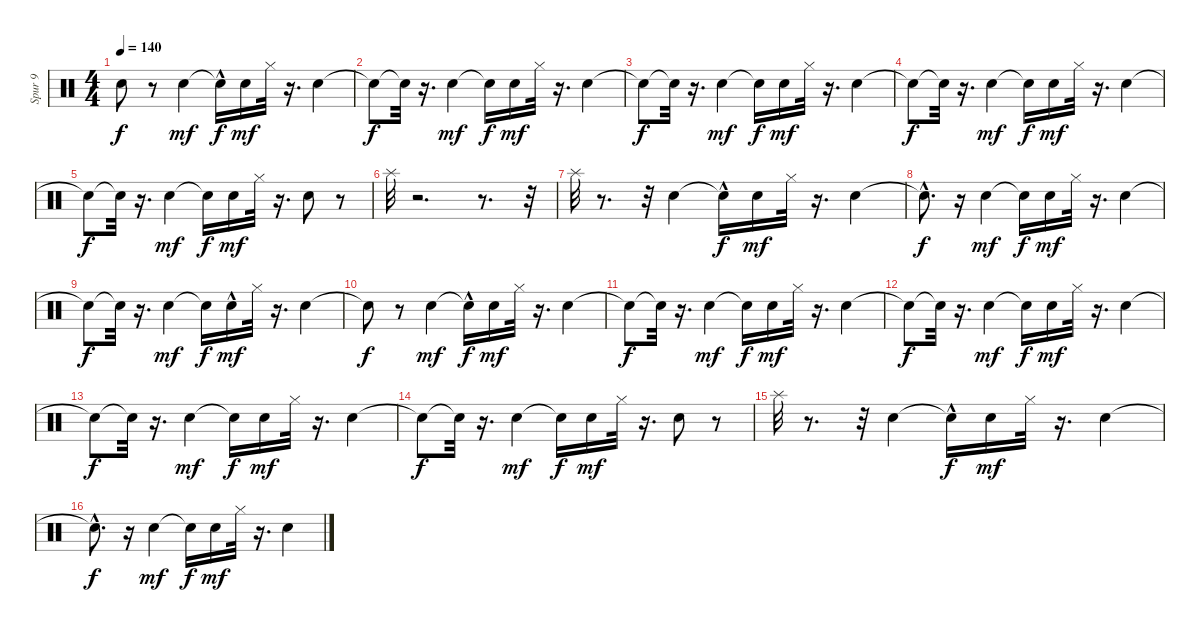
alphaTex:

\track ("Spur 9" "Spur 9") {instrument percussion}
\staff {score}
\articulation defaults
\ts (4 4)
\tempo 140
\clef neutral
\ks c "Snare (hit)"{t}.8{dy f}
r.8 "Electric Snare (hit)".4{dy mf} "Snare (hit)"{hac t}.16{dy f} "Snare (hit)".16{dy mf} "Hi-Hat (closed)".32 r.16{d} "Electric Snare (hit)".4 |
"Snare (hit)"{t}.8{dy f} "Snare (hit)"{t}.32 r.16{d} "Electric Snare (hit)".4{dy mf} "Snare (hit)"{t}.16{dy f} "Snare (hit)".16{dy mf} "Hi-Hat (closed)".32 r.16{d} "Electric Snare (hit)".4 |
"Snare (hit)"{t}.8{dy f} "Snare (hit)"{t}.32 r.16{d} "Electric Snare (hit)".4{dy mf} "Snare (hit)"{t}.16{dy f} "Snare (hit)".16{dy mf} "Hi-Hat (closed)".32 r.16{d} "Electric Snare (hit)".4 |
"Snare (hit)"{t}.8{dy f} "Snare (hit)"{t}.32 r.16{d} "Electric Snare (hit)".4{dy mf} "Snare (hit)"{t}.16{dy f} "Snare (hit)".16{dy mf} "Hi-Hat (closed)".32 r.16{d} "Electric Snare (hit)".4 |
"Snare (hit)"{t}.8{dy f} "Snare (hit)"{t}.32 r.16{d} "Electric Snare (hit)".4{dy mf} "Snare (hit)"{t}.16{dy f} "Snare (hit)".16{dy mf} "Hi-Hat (closed)".32 r.16{d} "Electric Snare (hit)".8 r.8 |
"Splash (hit)".32 r.2{d} r.8{d} r.32 |
"Splash (hit)".32 r.8{d} r.32 "Electric Snare (hit)".4 "Snare (hit)"{hac t}.16{dy f} "Snare (hit)".16{dy mf} "Hi-Hat (closed)".32 r.16{d} "Electric Snare (hit)".4 |
"Snare (hit)"{hac t}.8{d dy f} r.16 "Electric Snare (hit)".4{dy mf} "Snare (hit)"{t}.16{dy f} "Snare (hit)".16{dy mf} "Hi-Hat (closed)".32 r.16{d} "Electric Snare (hit)".4 |
"Snare (hit)"{t}.8{dy f} "Snare (hit)"{t}.32 r.16{d} "Electric Snare (hit)".4{dy mf} "Snare (hit)"{t}.16{dy f} "Snare (hit)"{hac}.16{dy mf} "Hi-Hat (closed)".32 r.16{d} "Electric Snare (hit)".4 |
"Snare (hit)"{t}.8{dy f} r.8 "Electric Snare (hit)".4{dy mf} "Snare (hit)"{hac t}.16{dy f} "Snare (hit)".16{dy mf} "Hi-Hat (closed)".32 r.16{d} "Electric Snare (hit)".4 |
"Snare (hit)"{t}.8{dy f} "Snare (hit)"{t}.32 r.16{d} "Electric Snare (hit)".4{dy mf} "Snare (hit)"{t}.16{dy f} "Snare (hit)".16{dy mf} "Hi-Hat (closed)".32 r.16{d} "Electric Snare (hit)".4 |
"Snare (hit)"{t}.8{dy f} "Snare (hit)"{t}.32 r.16{d} "Electric Snare (hit)".4{dy mf} "Snare (hit)"{t}.16{dy f} "Snare (hit)".16{dy mf} "Hi-Hat (closed)".32 r.16{d} "Electric Snare (hit)".4 |
"Snare (hit)"{t}.8{dy f} "Snare (hit)"{t}.32 r.16{d} "Electric Snare (hit)".4{dy mf} "Snare (hit)"{t}.16{dy f} "Snare (hit)".16{dy mf} "Hi-Hat (closed)".32 r.16{d} "Electric Snare (hit)".4 |
"Snare (hit)"{t}.8{dy f} "Snare (hit)"{t}.32 r.16{d} "Electric Snare (hit)".4{dy mf} "Snare (hit)"{t}.16{dy f} "Snare (hit)".16{dy mf} "Hi-Hat (closed)".32 r.16{d} "Electric Snare (hit)".8 r.8 |
"Splash (hit)".32 r.8{d} r.32 "Electric Snare (hit)".4 "Snare (hit)"{hac t}.16{dy f} "Snare (hit)".16{dy mf} "Hi-Hat (closed)".32 r.16{d} "Electric Snare (hit)".4 |
"Snare (hit)"{hac t}.8{d dy f} r.16 "Electric Snare (hit)".4{dy mf} "Snare (hit)"{t}.16{dy f} "Snare (hit)".16{dy mf} "Hi-Hat (closed)".32 r.16{d} "Electric Snare (hit)".4
